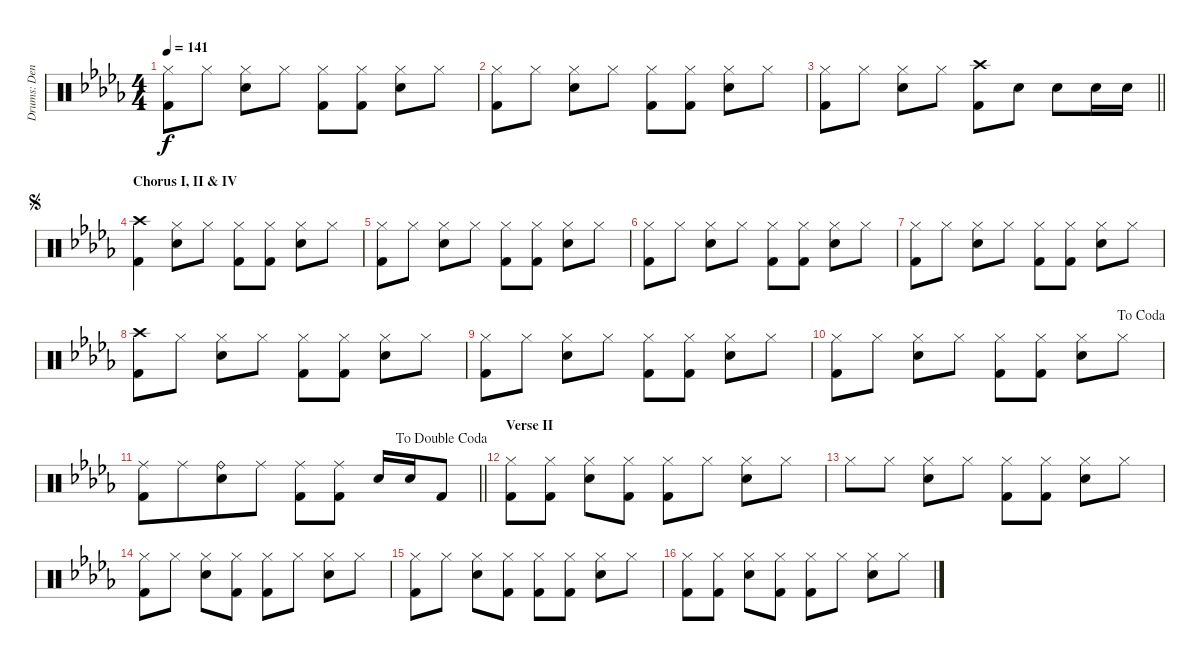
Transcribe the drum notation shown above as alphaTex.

\track ("Drums: Denny" "Drums: Den") {instrument percussion}
\staff {score}
\articulation defaults
\ts (4 4)
\tempo 141
\clef neutral
\ks db
("Hi-Hat (closed)" "Kick (hit) 2").8{dy f} "Hi-Hat (closed)".8 ("Hi-Hat (closed)" "Snare (hit) 2").8 "Hi-Hat (closed)".8 ("Hi-Hat (closed)" "Kick (hit) 2").8 ("Hi-Hat (closed)" "Kick (hit) 2").8 ("Hi-Hat (closed)" "Snare (hit) 2").8 "Hi-Hat (closed)".8 |
("Hi-Hat (closed)" "Kick (hit) 2").8 "Hi-Hat (closed)".8 ("Hi-Hat (closed)" "Snare (hit) 2").8 "Hi-Hat (closed)".8 ("Hi-Hat (closed)" "Kick (hit) 2").8 ("Hi-Hat (closed)" "Kick (hit) 2").8 ("Hi-Hat (closed)" "Snare (hit) 2").8 "Hi-Hat (closed)".8 |
\barLineRight lightlight
("Hi-Hat (closed)" "Kick (hit) 2").8 "Hi-Hat (closed)".8 ("Hi-Hat (closed)" "Snare (hit) 2").8 "Hi-Hat (closed)".8 ("Crash high (hit)" "Kick (hit) 2").8 "Snare (hit) 2".8 "Snare (hit) 2".8 "Snare (hit) 2".16 "Snare (hit) 2".16 |
\section ("" "Chorus I, II & IV")
\jump segno
("Crash high (hit)" "Kick (hit) 2").4 ("Hi-Hat (closed)" "Snare (hit) 2").8 "Hi-Hat (closed)".8 ("Hi-Hat (closed)" "Kick (hit) 2").8 ("Hi-Hat (closed)" "Kick (hit) 2").8 ("Hi-Hat (closed)" "Snare (hit) 2").8 "Hi-Hat (closed)".8 |
("Hi-Hat (closed)" "Kick (hit) 2").8 "Hi-Hat (closed)".8 ("Hi-Hat (closed)" "Snare (hit) 2").8 "Hi-Hat (closed)".8 ("Hi-Hat (closed)" "Kick (hit) 2").8 ("Hi-Hat (closed)" "Kick (hit) 2").8 ("Hi-Hat (closed)" "Snare (hit) 2").8 "Hi-Hat (closed)".8 |
("Hi-Hat (closed)" "Kick (hit) 2").8 "Hi-Hat (closed)".8 ("Hi-Hat (closed)" "Snare (hit) 2").8 "Hi-Hat (closed)".8 ("Hi-Hat (closed)" "Kick (hit) 2").8 ("Hi-Hat (closed)" "Kick (hit) 2").8 ("Hi-Hat (closed)" "Snare (hit) 2").8 "Hi-Hat (closed)".8 |
("Hi-Hat (closed)" "Kick (hit) 2").8 "Hi-Hat (closed)".8 ("Hi-Hat (closed)" "Snare (hit) 2").8 "Hi-Hat (closed)".8 ("Hi-Hat (closed)" "Kick (hit) 2").8 ("Hi-Hat (closed)" "Kick (hit) 2").8 ("Hi-Hat (closed)" "Snare (hit) 2").8 "Hi-Hat (closed)".8 |
("Crash high (hit)" "Kick (hit) 2").8 "Hi-Hat (closed)".8 ("Hi-Hat (closed)" "Snare (hit) 2").8 "Hi-Hat (closed)".8 ("Hi-Hat (closed)" "Kick (hit) 2").8 ("Hi-Hat (closed)" "Kick (hit) 2").8 ("Hi-Hat (closed)" "Snare (hit) 2").8 "Hi-Hat (closed)".8 |
("Hi-Hat (closed)" "Kick (hit) 2").8 "Hi-Hat (closed)".8 ("Hi-Hat (closed)" "Snare (hit) 2").8 "Hi-Hat (closed)".8 ("Hi-Hat (closed)" "Kick (hit) 2").8 ("Hi-Hat (closed)" "Kick (hit) 2").8 ("Hi-Hat (closed)" "Snare (hit) 2").8 "Hi-Hat (closed)".8 |
\jump dacoda
("Hi-Hat (closed)" "Kick (hit) 2").8 "Hi-Hat (closed)".8 ("Hi-Hat (closed)" "Snare (hit) 2").8 "Hi-Hat (closed)".8 ("Hi-Hat (closed)" "Kick (hit) 2").8 ("Hi-Hat (closed)" "Kick (hit) 2").8 ("Hi-Hat (closed)" "Snare (hit) 2").8 "Hi-Hat (closed)".8 |
\jump dadoublecoda
\barLineRight lightlight
("Ride (middle)" "Kick (hit) 2").8 "Ride (middle)".8{beam merge} ("Ride (bell)" "Snare (hit) 2").8 "Ride (middle)".8 ("Ride (middle)" "Kick (hit) 2").8 ("Ride (middle)" "Kick (hit) 2").8 "Snare (hit) 2".16 "Snare (hit) 2".16 "Kick (hit) 2".8 |
\section ("" "Verse II")
("Hi-Hat (closed)" "Kick (hit) 2").8 ("Hi-Hat (closed)" "Kick (hit) 2").8 ("Hi-Hat (closed)" "Snare (hit) 2").8 ("Hi-Hat (closed)" "Kick (hit) 2").8 ("Hi-Hat (closed)" "Kick (hit) 2").8 "Hi-Hat (closed)".8 ("Hi-Hat (closed)" "Snare (hit) 2").8 "Hi-Hat (closed)".8 |
"Hi-Hat (closed)".8 "Hi-Hat (closed)".8 ("Hi-Hat (closed)" "Snare (hit) 2").8 "Hi-Hat (closed)".8 ("Hi-Hat (closed)" "Kick (hit) 2").8 ("Hi-Hat (closed)" "Kick (hit) 2").8 ("Hi-Hat (closed)" "Snare (hit) 2").8 "Hi-Hat (closed)".8 |
("Hi-Hat (closed)" "Kick (hit) 2").8 "Hi-Hat (closed)".8 ("Hi-Hat (closed)" "Snare (hit) 2").8 ("Hi-Hat (closed)" "Kick (hit) 2").8 ("Hi-Hat (closed)" "Kick (hit) 2").8 "Hi-Hat (closed)".8 ("Hi-Hat (closed)" "Snare (hit) 2").8 "Hi-Hat (closed)".8 |
("Hi-Hat (closed)" "Kick (hit) 2").8 "Hi-Hat (closed)".8 ("Hi-Hat (closed)" "Snare (hit) 2").8 ("Hi-Hat (closed)" "Kick (hit) 2").8 ("Hi-Hat (closed)" "Kick (hit) 2").8 ("Hi-Hat (closed)" "Kick (hit) 2").8 ("Hi-Hat (closed)" "Snare (hit) 2").8 "Hi-Hat (closed)".8 |
("Hi-Hat (closed)" "Kick (hit) 2").8 ("Hi-Hat (closed)" "Kick (hit) 2").8 ("Hi-Hat (closed)" "Snare (hit) 2").8 ("Hi-Hat (closed)" "Kick (hit) 2").8 ("Hi-Hat (closed)" "Kick (hit) 2").8 "Hi-Hat (closed)".8 ("Hi-Hat (closed)" "Snare (hit) 2").8 "Hi-Hat (closed)".8
